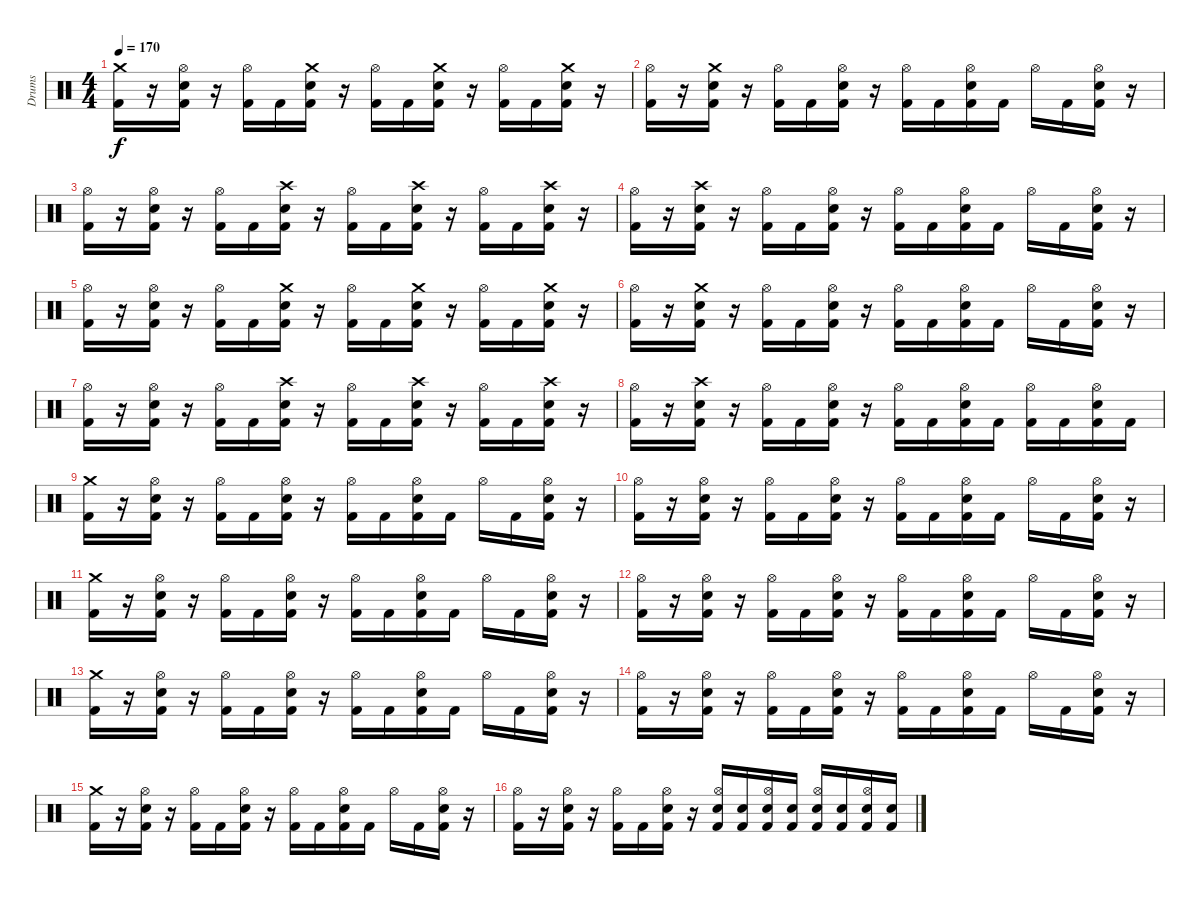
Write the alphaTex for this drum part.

\track ("Drums" "Drums") {instrument percussion}
\staff {score}
\articulation defaults
\ts (4 4)
\section ("" "")
\tempo 170
\clef neutral
\ks c
("Crash medium (hit)" "Kick (hit) 2").16{dy f} r.16 ("Hi-Hat (open)" "Electric Snare (hit)" "Kick (hit) 2").16 r.16 ("Hi-Hat (open)" "Kick (hit) 2").16 "Kick (hit) 2".16 ("Crash medium (hit)" "Electric Snare (hit)" "Kick (hit) 2").16 r.16 ("Hi-Hat (open)" "Kick (hit) 2").16 "Kick (hit) 2".16 ("Crash medium (hit)" "Electric Snare (hit)" "Kick (hit) 2").16 r.16 ("Hi-Hat (open)" "Kick (hit) 2").16 "Kick (hit) 2".16 ("Crash medium (hit)" "Electric Snare (hit)" "Kick (hit) 2").16 r.16 |
("Hi-Hat (open)" "Kick (hit) 2").16 r.16 ("Crash medium (hit)" "Electric Snare (hit)" "Kick (hit) 2").16 r.16 ("Hi-Hat (open)" "Kick (hit) 2").16 "Kick (hit) 2".16 ("Hi-Hat (open)" "Electric Snare (hit)" "Kick (hit) 2").16 r.16 ("Hi-Hat (open)" "Kick (hit) 2").16 "Kick (hit) 2".16 ("Hi-Hat (open)" "Electric Snare (hit)" "Kick (hit) 2").16 "Kick (hit) 2".16 "Hi-Hat (open)".16 "Kick (hit) 2".16 ("Hi-Hat (open)" "Electric Snare (hit)" "Kick (hit) 2").16 r.16 |
("Hi-Hat (open)" "Kick (hit) 2").16 r.16 ("Hi-Hat (open)" "Electric Snare (hit)" "Kick (hit) 2").16 r.16 ("Hi-Hat (open)" "Kick (hit) 2").16 "Kick (hit) 2".16 ("Crash high (hit)" "Electric Snare (hit)" "Kick (hit) 2").16 r.16 ("Hi-Hat (open)" "Kick (hit) 2").16 "Kick (hit) 2".16 ("Crash high (hit)" "Electric Snare (hit)" "Kick (hit) 2").16 r.16 ("Hi-Hat (open)" "Kick (hit) 2").16 "Kick (hit) 2".16 ("Crash high (hit)" "Electric Snare (hit)" "Kick (hit) 2").16 r.16 |
("Hi-Hat (open)" "Kick (hit) 2").16 r.16 ("Crash high (hit)" "Electric Snare (hit)" "Kick (hit) 2").16 r.16 ("Hi-Hat (open)" "Kick (hit) 2").16 "Kick (hit) 2".16 ("Hi-Hat (open)" "Electric Snare (hit)" "Kick (hit) 2").16 r.16 ("Hi-Hat (open)" "Kick (hit) 2").16 "Kick (hit) 2".16 ("Hi-Hat (open)" "Electric Snare (hit)" "Kick (hit) 2").16 "Kick (hit) 2".16 "Hi-Hat (open)".16 "Kick (hit) 2".16 ("Hi-Hat (open)" "Electric Snare (hit)" "Kick (hit) 2").16 r.16 |
("Hi-Hat (open)" "Kick (hit) 2").16 r.16 ("Hi-Hat (open)" "Electric Snare (hit)" "Kick (hit) 2").16 r.16 ("Hi-Hat (open)" "Kick (hit) 2").16 "Kick (hit) 2".16 ("Crash medium (hit)" "Electric Snare (hit)" "Kick (hit) 2").16 r.16 ("Hi-Hat (open)" "Kick (hit) 2").16 "Kick (hit) 2".16 ("Crash medium (hit)" "Electric Snare (hit)" "Kick (hit) 2").16 r.16 ("Hi-Hat (open)" "Kick (hit) 2").16 "Kick (hit) 2".16 ("Crash medium (hit)" "Electric Snare (hit)" "Kick (hit) 2").16 r.16 |
("Hi-Hat (open)" "Kick (hit) 2").16 r.16 ("Crash medium (hit)" "Electric Snare (hit)" "Kick (hit) 2").16 r.16 ("Hi-Hat (open)" "Kick (hit) 2").16 "Kick (hit) 2".16 ("Hi-Hat (open)" "Electric Snare (hit)" "Kick (hit) 2").16 r.16 ("Hi-Hat (open)" "Kick (hit) 2").16 "Kick (hit) 2".16 ("Hi-Hat (open)" "Electric Snare (hit)" "Kick (hit) 2").16 "Kick (hit) 2".16 "Hi-Hat (open)".16 "Kick (hit) 2".16 ("Hi-Hat (open)" "Electric Snare (hit)" "Kick (hit) 2").16 r.16 |
("Hi-Hat (open)" "Kick (hit) 2").16 r.16 ("Hi-Hat (open)" "Electric Snare (hit)" "Kick (hit) 2").16 r.16 ("Hi-Hat (open)" "Kick (hit) 2").16 "Kick (hit) 2".16 ("Crash high (hit)" "Electric Snare (hit)" "Kick (hit) 2").16 r.16 ("Hi-Hat (open)" "Kick (hit) 2").16 "Kick (hit) 2".16 ("Crash high (hit)" "Electric Snare (hit)" "Kick (hit) 2").16 r.16 ("Hi-Hat (open)" "Kick (hit) 2").16 "Kick (hit) 2".16 ("Crash high (hit)" "Electric Snare (hit)" "Kick (hit) 2").16 r.16 |
("Hi-Hat (open)" "Kick (hit) 2").16 r.16 ("Crash high (hit)" "Electric Snare (hit)" "Kick (hit) 2").16 r.16 ("Hi-Hat (open)" "Kick (hit) 2").16 "Kick (hit) 2".16 ("Hi-Hat (open)" "Electric Snare (hit)" "Kick (hit) 2").16 r.16 ("Hi-Hat (open)" "Kick (hit) 2").16 "Kick (hit) 2".16 ("Hi-Hat (open)" "Electric Snare (hit)" "Kick (hit) 2").16 "Kick (hit) 2".16 ("Hi-Hat (open)" "Kick (hit) 2").16 "Kick (hit) 2".16 ("Hi-Hat (open)" "Electric Snare (hit)" "Kick (hit) 2").16 "Kick (hit) 2".16 |
\section ("" "")
("Crash medium (hit)" "Kick (hit) 2").16 r.16 ("Hi-Hat (open)" "Electric Snare (hit)" "Kick (hit) 2").16 r.16 ("Hi-Hat (open)" "Kick (hit) 2").16 "Kick (hit) 2".16 ("Hi-Hat (open)" "Electric Snare (hit)" "Kick (hit) 2").16 r.16 ("Hi-Hat (open)" "Kick (hit) 2").16 "Kick (hit) 2".16 ("Hi-Hat (open)" "Electric Snare (hit)" "Kick (hit) 2").16 "Kick (hit) 2".16 "Hi-Hat (open)".16 "Kick (hit) 2".16 ("Hi-Hat (open)" "Electric Snare (hit)" "Kick (hit) 2").16 r.16 |
("Hi-Hat (open)" "Kick (hit) 2").16 r.16 ("Hi-Hat (open)" "Electric Snare (hit)" "Kick (hit) 2").16 r.16 ("Hi-Hat (open)" "Kick (hit) 2").16 "Kick (hit) 2".16 ("Hi-Hat (open)" "Electric Snare (hit)" "Kick (hit) 2").16 r.16 ("Hi-Hat (open)" "Kick (hit) 2").16 "Kick (hit) 2".16 ("Hi-Hat (open)" "Electric Snare (hit)" "Kick (hit) 2").16 "Kick (hit) 2".16 "Hi-Hat (open)".16 "Kick (hit) 2".16 ("Hi-Hat (open)" "Electric Snare (hit)" "Kick (hit) 2").16 r.16 |
("Crash medium (hit)" "Kick (hit) 2").16 r.16 ("Hi-Hat (open)" "Electric Snare (hit)" "Kick (hit) 2").16 r.16 ("Hi-Hat (open)" "Kick (hit) 2").16 "Kick (hit) 2".16 ("Hi-Hat (open)" "Electric Snare (hit)" "Kick (hit) 2").16 r.16 ("Hi-Hat (open)" "Kick (hit) 2").16 "Kick (hit) 2".16 ("Hi-Hat (open)" "Electric Snare (hit)" "Kick (hit) 2").16 "Kick (hit) 2".16 "Hi-Hat (open)".16 "Kick (hit) 2".16 ("Hi-Hat (open)" "Electric Snare (hit)" "Kick (hit) 2").16 r.16 |
("Hi-Hat (open)" "Kick (hit) 2").16 r.16 ("Hi-Hat (open)" "Electric Snare (hit)" "Kick (hit) 2").16 r.16 ("Hi-Hat (open)" "Kick (hit) 2").16 "Kick (hit) 2".16 ("Hi-Hat (open)" "Electric Snare (hit)" "Kick (hit) 2").16 r.16 ("Hi-Hat (open)" "Kick (hit) 2").16 "Kick (hit) 2".16 ("Hi-Hat (open)" "Electric Snare (hit)" "Kick (hit) 2").16 "Kick (hit) 2".16 "Hi-Hat (open)".16 "Kick (hit) 2".16 ("Hi-Hat (open)" "Electric Snare (hit)" "Kick (hit) 2").16 r.16 |
("Crash medium (hit)" "Kick (hit) 2").16 r.16 ("Hi-Hat (open)" "Electric Snare (hit)" "Kick (hit) 2").16 r.16 ("Hi-Hat (open)" "Kick (hit) 2").16 "Kick (hit) 2".16 ("Hi-Hat (open)" "Electric Snare (hit)" "Kick (hit) 2").16 r.16 ("Hi-Hat (open)" "Kick (hit) 2").16 "Kick (hit) 2".16 ("Hi-Hat (open)" "Electric Snare (hit)" "Kick (hit) 2").16 "Kick (hit) 2".16 "Hi-Hat (open)".16 "Kick (hit) 2".16 ("Hi-Hat (open)" "Electric Snare (hit)" "Kick (hit) 2").16 r.16 |
("Hi-Hat (open)" "Kick (hit) 2").16 r.16 ("Hi-Hat (open)" "Electric Snare (hit)" "Kick (hit) 2").16 r.16 ("Hi-Hat (open)" "Kick (hit) 2").16 "Kick (hit) 2".16 ("Hi-Hat (open)" "Electric Snare (hit)" "Kick (hit) 2").16 r.16 ("Hi-Hat (open)" "Kick (hit) 2").16 "Kick (hit) 2".16 ("Hi-Hat (open)" "Electric Snare (hit)" "Kick (hit) 2").16 "Kick (hit) 2".16 "Hi-Hat (open)".16 "Kick (hit) 2".16 ("Hi-Hat (open)" "Electric Snare (hit)" "Kick (hit) 2").16 r.16 |
("Crash medium (hit)" "Kick (hit) 2").16 r.16 ("Hi-Hat (open)" "Electric Snare (hit)" "Kick (hit) 2").16 r.16 ("Hi-Hat (open)" "Kick (hit) 2").16 "Kick (hit) 2".16 ("Hi-Hat (open)" "Electric Snare (hit)" "Kick (hit) 2").16 r.16 ("Hi-Hat (open)" "Kick (hit) 2").16 "Kick (hit) 2".16 ("Hi-Hat (open)" "Electric Snare (hit)" "Kick (hit) 2").16 "Kick (hit) 2".16 "Hi-Hat (open)".16 "Kick (hit) 2".16 ("Hi-Hat (open)" "Electric Snare (hit)" "Kick (hit) 2").16 r.16 |
("Hi-Hat (open)" "Kick (hit) 2").16 r.16 ("Hi-Hat (open)" "Electric Snare (hit)" "Kick (hit) 2").16 r.16 ("Hi-Hat (open)" "Kick (hit) 2").16 "Kick (hit) 2".16 ("Hi-Hat (open)" "Electric Snare (hit)" "Kick (hit) 2").16 r.16 ("Hi-Hat (open)" "Electric Snare (hit)" "Kick (hit) 2").16 ("Electric Snare (hit)" "Kick (hit) 2").16 ("Hi-Hat (open)" "Electric Snare (hit)" "Kick (hit) 2").16 ("Electric Snare (hit)" "Kick (hit) 2").16 ("Hi-Hat (open)" "Electric Snare (hit)" "Kick (hit) 2").16 ("Electric Snare (hit)" "Kick (hit) 2").16 ("Hi-Hat (open)" "Electric Snare (hit)" "Kick (hit) 2").16 ("Electric Snare (hit)" "Kick (hit) 2").16
